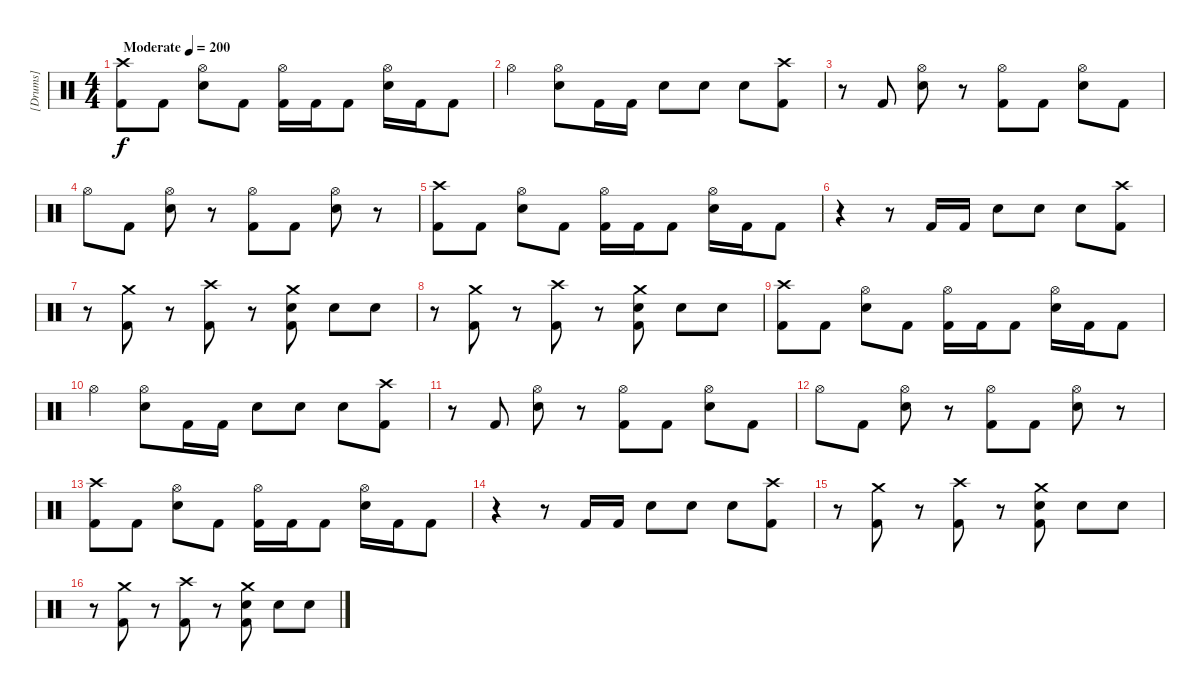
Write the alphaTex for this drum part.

\track ("[Drums]" "[Drums]") {instrument percussion}
\staff {score}
\articulation defaults
\ts (4 4)
\tempo (200 "Moderate")
\clef neutral
\ks c
("Crash high (hit)" "Kick (hit) 2").8{dy f} "Kick (hit) 2".8 ("Hi-Hat (open)" "Electric Snare (hit)").8 "Kick (hit) 2".8 ("Hi-Hat (open)" "Kick (hit) 2").16 "Kick (hit) 2".16 "Kick (hit) 2".8 ("Hi-Hat (open)" "Electric Snare (hit)").16 "Kick (hit) 2".16 "Kick (hit) 2".8 |
"Hi-Hat (open)".4 ("Hi-Hat (open)" "Electric Snare (hit)").8 "Kick (hit) 2".16 "Kick (hit) 2".16 "Electric Snare (hit)".8 "Electric Snare (hit)".8 "Electric Snare (hit)".8 ("Crash high (hit)" "Kick (hit) 2").8 |
r.8 "Kick (hit) 2".8 ("Hi-Hat (open)" "Electric Snare (hit)").8 r.8 ("Hi-Hat (open)" "Kick (hit) 2").8 "Kick (hit) 2".8 ("Hi-Hat (open)" "Electric Snare (hit)").8 "Kick (hit) 2".8 |
"Hi-Hat (open)".8 "Kick (hit) 2".8 ("Hi-Hat (open)" "Electric Snare (hit)").8 r.8 ("Hi-Hat (open)" "Kick (hit) 2").8 "Kick (hit) 2".8 ("Hi-Hat (open)" "Electric Snare (hit)").8 r.8 |
("Crash high (hit)" "Kick (hit) 2").8 "Kick (hit) 2".8 ("Hi-Hat (open)" "Electric Snare (hit)").8 "Kick (hit) 2".8 ("Hi-Hat (open)" "Kick (hit) 2").16 "Kick (hit) 2".16 "Kick (hit) 2".8 ("Hi-Hat (open)" "Electric Snare (hit)").16 "Kick (hit) 2".16 "Kick (hit) 2".8 |
r.4 r.8 "Kick (hit) 2".16 "Kick (hit) 2".16 "Electric Snare (hit)".8 "Electric Snare (hit)".8 "Electric Snare (hit)".8 ("Crash high (hit)" "Kick (hit) 2").8 |
r.8 ("Crash medium (hit)" "Kick (hit) 2").8 r.8 ("Crash high (hit)" "Kick (hit) 2").8 r.8 ("Crash medium (hit)" "Electric Snare (hit)" "Kick (hit) 2").8 "Electric Snare (hit)".8 "Electric Snare (hit)".8 |
r.8 ("Crash medium (hit)" "Kick (hit) 2").8 r.8 ("Crash high (hit)" "Kick (hit) 2").8 r.8 ("Crash medium (hit)" "Electric Snare (hit)" "Kick (hit) 2").8 "Electric Snare (hit)".8 "Electric Snare (hit)".8 |
("Crash high (hit)" "Kick (hit) 2").8 "Kick (hit) 2".8 ("Hi-Hat (open)" "Electric Snare (hit)").8 "Kick (hit) 2".8 ("Hi-Hat (open)" "Kick (hit) 2").16 "Kick (hit) 2".16 "Kick (hit) 2".8 ("Hi-Hat (open)" "Electric Snare (hit)").16 "Kick (hit) 2".16 "Kick (hit) 2".8 |
"Hi-Hat (open)".4 ("Hi-Hat (open)" "Electric Snare (hit)").8 "Kick (hit) 2".16 "Kick (hit) 2".16 "Electric Snare (hit)".8 "Electric Snare (hit)".8 "Electric Snare (hit)".8 ("Crash high (hit)" "Kick (hit) 2").8 |
r.8 "Kick (hit) 2".8 ("Hi-Hat (open)" "Electric Snare (hit)").8 r.8 ("Hi-Hat (open)" "Kick (hit) 2").8 "Kick (hit) 2".8 ("Hi-Hat (open)" "Electric Snare (hit)").8 "Kick (hit) 2".8 |
"Hi-Hat (open)".8 "Kick (hit) 2".8 ("Hi-Hat (open)" "Electric Snare (hit)").8 r.8 ("Hi-Hat (open)" "Kick (hit) 2").8 "Kick (hit) 2".8 ("Hi-Hat (open)" "Electric Snare (hit)").8 r.8 |
("Crash high (hit)" "Kick (hit) 2").8 "Kick (hit) 2".8 ("Hi-Hat (open)" "Electric Snare (hit)").8 "Kick (hit) 2".8 ("Hi-Hat (open)" "Kick (hit) 2").16 "Kick (hit) 2".16 "Kick (hit) 2".8 ("Hi-Hat (open)" "Electric Snare (hit)").16 "Kick (hit) 2".16 "Kick (hit) 2".8 |
r.4 r.8 "Kick (hit) 2".16 "Kick (hit) 2".16 "Electric Snare (hit)".8 "Electric Snare (hit)".8 "Electric Snare (hit)".8 ("Crash high (hit)" "Kick (hit) 2").8 |
r.8 ("Crash medium (hit)" "Kick (hit) 2").8 r.8 ("Crash high (hit)" "Kick (hit) 2").8 r.8 ("Crash medium (hit)" "Electric Snare (hit)" "Kick (hit) 2").8 "Electric Snare (hit)".8 "Electric Snare (hit)".8 |
r.8 ("Crash medium (hit)" "Kick (hit) 2").8 r.8 ("Crash high (hit)" "Kick (hit) 2").8 r.8 ("Crash medium (hit)" "Electric Snare (hit)" "Kick (hit) 2").8 "Electric Snare (hit)".8 "Electric Snare (hit)".8
